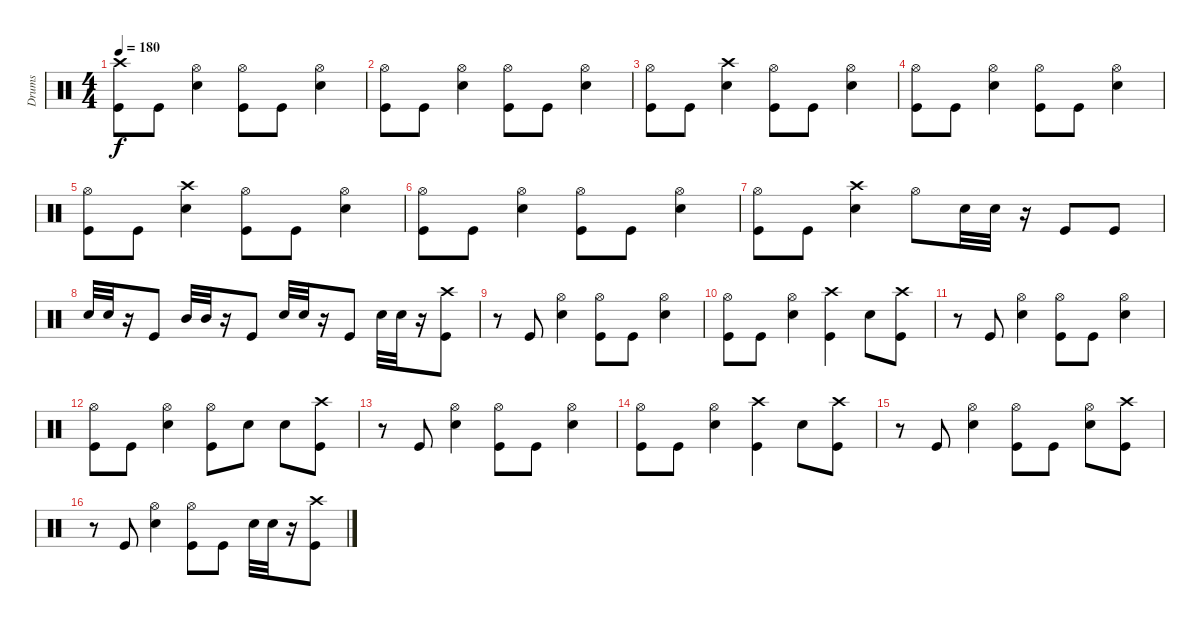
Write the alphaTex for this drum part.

\track ("Drums" "Drums") {instrument percussion}
\staff {score}
\articulation defaults
\ts (4 4)
\tempo 180
\clef neutral
\ks c
("Crash high (hit)" "Kick (hit)").8{dy f} "Kick (hit)".8 ("Hi-Hat (open)" "Snare (hit) 2").4 ("Hi-Hat (open)" "Kick (hit)").8 "Kick (hit)".8 ("Hi-Hat (open)" "Snare (hit) 2").4 |
("Hi-Hat (open)" "Kick (hit)").8 "Kick (hit)".8 ("Hi-Hat (open)" "Snare (hit) 2").4 ("Hi-Hat (open)" "Kick (hit)").8 "Kick (hit)".8 ("Hi-Hat (open)" "Snare (hit) 2").4 |
("Hi-Hat (open)" "Kick (hit)").8 "Kick (hit)".8 ("Crash high (hit)" "Snare (hit) 2").4 ("Hi-Hat (open)" "Kick (hit)").8 "Kick (hit)".8 ("Hi-Hat (open)" "Snare (hit) 2").4 |
("Hi-Hat (open)" "Kick (hit)").8 "Kick (hit)".8 ("Hi-Hat (open)" "Snare (hit) 2").4 ("Hi-Hat (open)" "Kick (hit)").8 "Kick (hit)".8 ("Hi-Hat (open)" "Snare (hit) 2").4 |
("Hi-Hat (open)" "Kick (hit)").8 "Kick (hit)".8 ("Crash high (hit)" "Snare (hit) 2").4 ("Hi-Hat (open)" "Kick (hit)").8 "Kick (hit)".8 ("Hi-Hat (open)" "Snare (hit) 2").4 |
("Hi-Hat (open)" "Kick (hit)").8 "Kick (hit)".8 ("Hi-Hat (open)" "Snare (hit) 2").4 ("Hi-Hat (open)" "Kick (hit)").8 "Kick (hit)".8 ("Hi-Hat (open)" "Snare (hit) 2").4 |
("Hi-Hat (open)" "Kick (hit)").8 "Kick (hit)".8 ("Crash high (hit)" "Snare (hit) 2").4 "Hi-Hat (open)".8 "Snare (hit) 2".32 "Snare (hit) 2".32 r.16 "Kick (hit)".8 "Kick (hit)".8 |
"Snare (hit) 2".32 "Snare (hit) 2".32 r.16 "Kick (hit)".8 "Mid Tom (hit)".32 "Mid Tom (hit)".32 r.16 "Kick (hit)".8 "Snare (hit) 2".32 "Snare (hit) 2".32 r.16 "Kick (hit)".8 "Snare (hit) 2".32 "Snare (hit) 2".32 r.16 ("Crash high (hit)" "Kick (hit)").8 |
r.8 "Kick (hit)".8 ("Hi-Hat (open)" "Snare (hit) 2").4 ("Hi-Hat (open)" "Kick (hit)").8 "Kick (hit)".8 ("Hi-Hat (open)" "Snare (hit) 2").4 |
("Hi-Hat (open)" "Kick (hit)").8 "Kick (hit)".8 ("Hi-Hat (open)" "Snare (hit) 2").4 ("Crash high (hit)" "Kick (hit)").4 "Snare (hit) 2".8 ("Crash high (hit)" "Kick (hit)").8 |
r.8 "Kick (hit)".8 ("Hi-Hat (open)" "Snare (hit) 2").4 ("Hi-Hat (open)" "Kick (hit)").8 "Kick (hit)".8 ("Hi-Hat (open)" "Snare (hit) 2").4 |
("Hi-Hat (open)" "Kick (hit)").8 "Kick (hit)".8 ("Hi-Hat (open)" "Snare (hit) 2").4 ("Hi-Hat (open)" "Kick (hit)").8 "Snare (hit) 2".8 "Snare (hit) 2".8 ("Crash high (hit)" "Kick (hit)").8 |
r.8 "Kick (hit)".8 ("Hi-Hat (open)" "Snare (hit) 2").4 ("Hi-Hat (open)" "Kick (hit)").8 "Kick (hit)".8 ("Hi-Hat (open)" "Snare (hit) 2").4 |
("Hi-Hat (open)" "Kick (hit)").8 "Kick (hit)".8 ("Hi-Hat (open)" "Snare (hit) 2").4 ("Crash high (hit)" "Kick (hit)").4 "Snare (hit) 2".8 ("Crash high (hit)" "Kick (hit)").8 |
r.8 "Kick (hit)".8 ("Hi-Hat (open)" "Snare (hit) 2").4 ("Hi-Hat (open)" "Kick (hit)").8 "Kick (hit)".8 ("Hi-Hat (open)" "Snare (hit) 2").8 ("Crash high (hit)" "Kick (hit)").8 |
r.8 "Kick (hit)".8 ("Hi-Hat (open)" "Snare (hit) 2").4 ("Hi-Hat (open)" "Kick (hit)").8 "Kick (hit)".8 "Snare (hit) 2".32 "Snare (hit) 2".32 r.16 ("Crash high (hit)" "Kick (hit)").8
